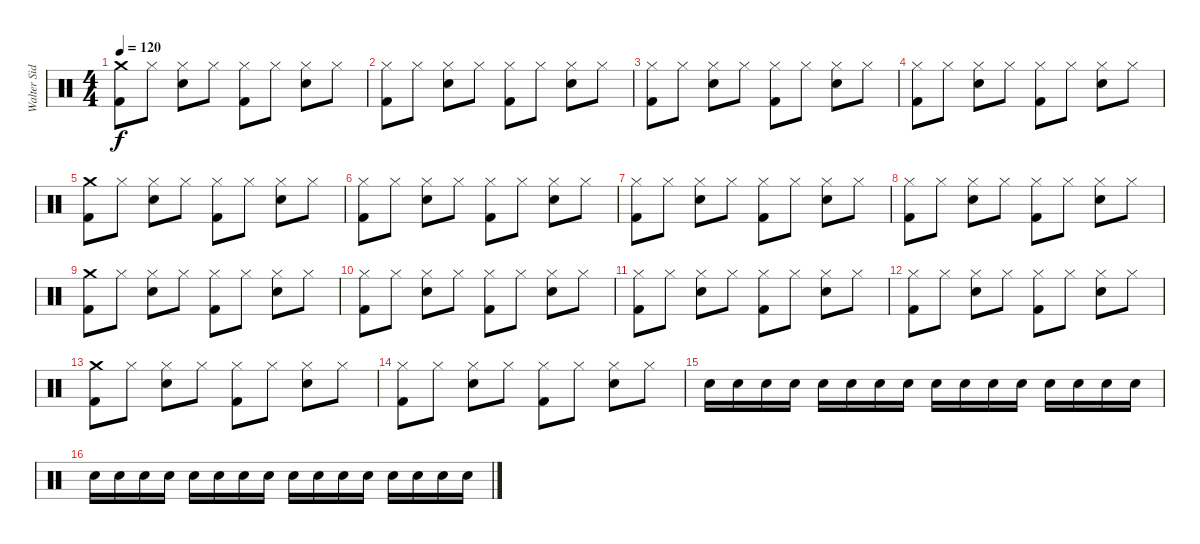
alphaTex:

\track ("Walter Sidotti" "Walter Sid") {instrument percussion}
\staff {score}
\articulation defaults
\ts (4 4)
\tempo 120
\clef neutral
\ks c
("Kick (hit) 2" "Crash medium (hit)").8{dy f} "Hi-Hat (closed)".8 ("Electric Snare (hit)" "Hi-Hat (closed)").8 "Hi-Hat (closed)".8 ("Kick (hit) 2" "Hi-Hat (closed)").8 "Hi-Hat (closed)".8 ("Electric Snare (hit)" "Hi-Hat (closed)").8 "Hi-Hat (closed)".8 |
("Kick (hit) 2" "Hi-Hat (closed)").8 "Hi-Hat (closed)".8 ("Electric Snare (hit)" "Hi-Hat (closed)").8 "Hi-Hat (closed)".8 ("Kick (hit) 2" "Hi-Hat (closed)").8 "Hi-Hat (closed)".8 ("Electric Snare (hit)" "Hi-Hat (closed)").8 "Hi-Hat (closed)".8 |
("Kick (hit) 2" "Hi-Hat (closed)").8 "Hi-Hat (closed)".8 ("Electric Snare (hit)" "Hi-Hat (closed)").8 "Hi-Hat (closed)".8 ("Kick (hit) 2" "Hi-Hat (closed)").8 "Hi-Hat (closed)".8 ("Electric Snare (hit)" "Hi-Hat (closed)").8 "Hi-Hat (closed)".8 |
("Kick (hit) 2" "Hi-Hat (closed)").8 "Hi-Hat (closed)".8 ("Electric Snare (hit)" "Hi-Hat (closed)").8 "Hi-Hat (closed)".8 ("Kick (hit) 2" "Hi-Hat (closed)").8 "Hi-Hat (closed)".8 ("Electric Snare (hit)" "Hi-Hat (closed)").8 "Hi-Hat (closed)".8 |
("Kick (hit) 2" "Crash medium (hit)").8 "Hi-Hat (closed)".8 ("Electric Snare (hit)" "Hi-Hat (closed)").8 "Hi-Hat (closed)".8 ("Kick (hit) 2" "Hi-Hat (closed)").8 "Hi-Hat (closed)".8 ("Electric Snare (hit)" "Hi-Hat (closed)").8 "Hi-Hat (closed)".8 |
("Kick (hit) 2" "Hi-Hat (closed)").8 "Hi-Hat (closed)".8 ("Electric Snare (hit)" "Hi-Hat (closed)").8 "Hi-Hat (closed)".8 ("Kick (hit) 2" "Hi-Hat (closed)").8 "Hi-Hat (closed)".8 ("Electric Snare (hit)" "Hi-Hat (closed)").8 "Hi-Hat (closed)".8 |
("Kick (hit) 2" "Hi-Hat (closed)").8 "Hi-Hat (closed)".8 ("Electric Snare (hit)" "Hi-Hat (closed)").8 "Hi-Hat (closed)".8 ("Kick (hit) 2" "Hi-Hat (closed)").8 "Hi-Hat (closed)".8 ("Electric Snare (hit)" "Hi-Hat (closed)").8 "Hi-Hat (closed)".8 |
("Kick (hit) 2" "Hi-Hat (closed)").8 "Hi-Hat (closed)".8 ("Electric Snare (hit)" "Hi-Hat (closed)").8 "Hi-Hat (closed)".8 ("Kick (hit) 2" "Hi-Hat (closed)").8 "Hi-Hat (closed)".8 ("Electric Snare (hit)" "Hi-Hat (closed)").8 "Hi-Hat (closed)".8 |
("Kick (hit) 2" "Crash medium (hit)").8 "Hi-Hat (closed)".8 ("Electric Snare (hit)" "Hi-Hat (closed)").8 "Hi-Hat (closed)".8 ("Kick (hit) 2" "Hi-Hat (closed)").8 "Hi-Hat (closed)".8 ("Electric Snare (hit)" "Hi-Hat (closed)").8 "Hi-Hat (closed)".8 |
("Kick (hit) 2" "Hi-Hat (closed)").8 "Hi-Hat (closed)".8 ("Electric Snare (hit)" "Hi-Hat (closed)").8 "Hi-Hat (closed)".8 ("Kick (hit) 2" "Hi-Hat (closed)").8 "Hi-Hat (closed)".8 ("Electric Snare (hit)" "Hi-Hat (closed)").8 "Hi-Hat (closed)".8 |
("Kick (hit) 2" "Hi-Hat (closed)").8 "Hi-Hat (closed)".8 ("Electric Snare (hit)" "Hi-Hat (closed)").8 "Hi-Hat (closed)".8 ("Kick (hit) 2" "Hi-Hat (closed)").8 "Hi-Hat (closed)".8 ("Electric Snare (hit)" "Hi-Hat (closed)").8 "Hi-Hat (closed)".8 |
("Kick (hit) 2" "Hi-Hat (closed)").8 "Hi-Hat (closed)".8 ("Electric Snare (hit)" "Hi-Hat (closed)").8 "Hi-Hat (closed)".8 ("Kick (hit) 2" "Hi-Hat (closed)").8 "Hi-Hat (closed)".8 ("Electric Snare (hit)" "Hi-Hat (closed)").8 "Hi-Hat (closed)".8 |
("Kick (hit) 2" "Crash medium (hit)").8 "Hi-Hat (closed)".8 ("Electric Snare (hit)" "Hi-Hat (closed)").8 "Hi-Hat (closed)".8 ("Kick (hit) 2" "Hi-Hat (closed)").8 "Hi-Hat (closed)".8 ("Electric Snare (hit)" "Hi-Hat (closed)").8 "Hi-Hat (closed)".8 |
("Kick (hit) 2" "Hi-Hat (closed)").8 "Hi-Hat (closed)".8 ("Electric Snare (hit)" "Hi-Hat (closed)").8 "Hi-Hat (closed)".8 ("Kick (hit) 2" "Hi-Hat (closed)").8 "Hi-Hat (closed)".8 ("Electric Snare (hit)" "Hi-Hat (closed)").8 "Hi-Hat (closed)".8 |
"Electric Snare (hit)".16{volume 5} "Electric Snare (hit)".16{volume 11} "Electric Snare (hit)".16 "Electric Snare (hit)".16 "Electric Snare (hit)".16 "Electric Snare (hit)".16 "Electric Snare (hit)".16 "Electric Snare (hit)".16 "Electric Snare (hit)".16 "Electric Snare (hit)".16 "Electric Snare (hit)".16 "Electric Snare (hit)".16 "Electric Snare (hit)".16 "Electric Snare (hit)".16 "Electric Snare (hit)".16 "Electric Snare (hit)".16 |
"Electric Snare (hit)".16 "Electric Snare (hit)".16 "Electric Snare (hit)".16 "Electric Snare (hit)".16 "Electric Snare (hit)".16 "Electric Snare (hit)".16 "Electric Snare (hit)".16 "Electric Snare (hit)".16 "Electric Snare (hit)".16 "Electric Snare (hit)".16 "Electric Snare (hit)".16 "Electric Snare (hit)".16 "Electric Snare (hit)".16 "Electric Snare (hit)".16 "Electric Snare (hit)".16 "Electric Snare (hit)".16
